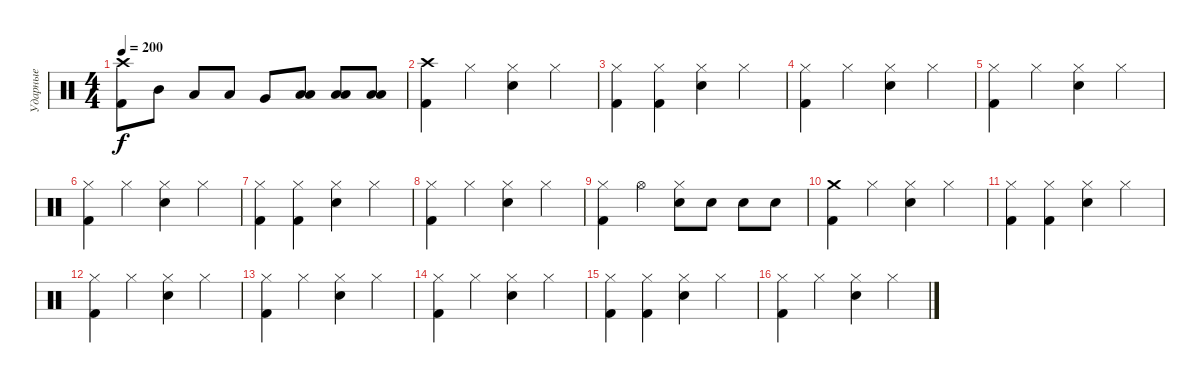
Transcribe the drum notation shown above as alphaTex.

\track ("Ударные" "Ударные") {instrument percussion}
\staff {score}
\articulation defaults
\ts (4 4)
\tempo 200
\clef neutral
\ks c
("Crash high (hit)" "Kick (hit) 2").8{dy f} "Mid Tom (hit)".8 "Low Tom (hit)".8 "Low Tom (hit)".8 "Very Low Tom (hit)".8 ("Low Tom (hit)" "Low Floor Tom (hit)").8 ("Low Tom (hit)" "Low Floor Tom (hit)").8 ("Low Tom (hit)" "Low Floor Tom (hit)").8 |
("Crash high (hit)" "Kick (hit) 2").4 "Hi-Hat (closed)".4 ("Hi-Hat (closed)" "Electric Snare (hit)").4 "Hi-Hat (closed)".4 |
("Hi-Hat (closed)" "Kick (hit) 2").4 ("Hi-Hat (closed)" "Kick (hit) 2").4 ("Hi-Hat (closed)" "Electric Snare (hit)").4 "Hi-Hat (closed)".4 |
("Hi-Hat (closed)" "Kick (hit) 2").4 "Hi-Hat (closed)".4 ("Hi-Hat (closed)" "Electric Snare (hit)").4 "Hi-Hat (closed)".4 |
("Hi-Hat (closed)" "Kick (hit) 2").4 "Hi-Hat (closed)".4 ("Hi-Hat (closed)" "Electric Snare (hit)").4 "Hi-Hat (closed)".4 |
("Hi-Hat (closed)" "Kick (hit) 2").4 "Hi-Hat (closed)".4 ("Hi-Hat (closed)" "Electric Snare (hit)").4 "Hi-Hat (closed)".4 |
("Hi-Hat (closed)" "Kick (hit) 2").4 ("Hi-Hat (closed)" "Kick (hit) 2").4 ("Hi-Hat (closed)" "Electric Snare (hit)").4 "Hi-Hat (closed)".4 |
("Hi-Hat (closed)" "Kick (hit) 2").4 "Hi-Hat (closed)".4 ("Hi-Hat (closed)" "Electric Snare (hit)").4 "Hi-Hat (closed)".4 |
("Hi-Hat (closed)" "Kick (hit) 2").4 "Hi-Hat (open)".4 ("Hi-Hat (closed)" "Electric Snare (hit)").8 "Electric Snare (hit)".8 "Electric Snare (hit)".8 "Electric Snare (hit)".8 |
("Crash medium (hit)" "Kick (hit) 2").4 "Hi-Hat (closed)".4 ("Hi-Hat (closed)" "Electric Snare (hit)").4 "Hi-Hat (closed)".4 |
("Hi-Hat (closed)" "Kick (hit) 2").4 ("Hi-Hat (closed)" "Kick (hit) 2").4 ("Hi-Hat (closed)" "Electric Snare (hit)").4 "Hi-Hat (closed)".4 |
("Hi-Hat (closed)" "Kick (hit) 2").4 "Hi-Hat (closed)".4 ("Hi-Hat (closed)" "Electric Snare (hit)").4 "Hi-Hat (closed)".4 |
("Hi-Hat (closed)" "Kick (hit) 2").4 "Hi-Hat (closed)".4 ("Hi-Hat (closed)" "Electric Snare (hit)").4 "Hi-Hat (closed)".4 |
("Hi-Hat (closed)" "Kick (hit) 2").4 "Hi-Hat (closed)".4 ("Hi-Hat (closed)" "Electric Snare (hit)").4 "Hi-Hat (closed)".4 |
("Hi-Hat (closed)" "Kick (hit) 2").4 ("Hi-Hat (closed)" "Kick (hit) 2").4 ("Hi-Hat (closed)" "Electric Snare (hit)").4 "Hi-Hat (closed)".4 |
("Hi-Hat (closed)" "Kick (hit) 2").4 "Hi-Hat (closed)".4 ("Hi-Hat (closed)" "Electric Snare (hit)").4 "Hi-Hat (closed)".4
